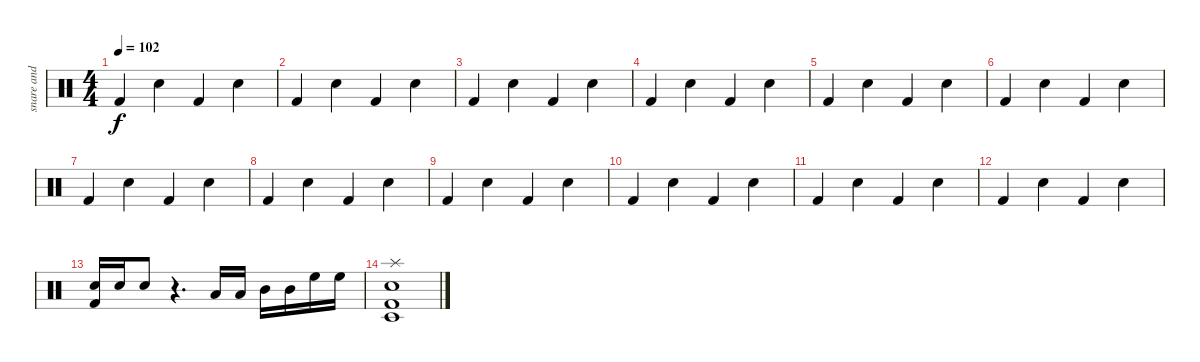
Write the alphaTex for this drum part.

\track ("snare and B.drum" "snare and ") {instrument percussion}
\staff {score}
\articulation defaults
\ts (4 4)
\tempo 102
\clef neutral
\ks c "Kick (hit) 2".4{dy f} "Electric Snare (hit)".4 "Kick (hit) 2".4 "Electric Snare (hit)".4
|
"Kick (hit) 2".4 "Electric Snare (hit)".4 "Kick (hit) 2".4 "Electric Snare (hit)".4 |
"Kick (hit) 2".4 "Electric Snare (hit)".4 "Kick (hit) 2".4 "Electric Snare (hit)".4 |
"Kick (hit) 2".4 "Electric Snare (hit)".4 "Kick (hit) 2".4 "Electric Snare (hit)".4 |
"Kick (hit) 2".4 "Electric Snare (hit)".4 "Kick (hit) 2".4 "Electric Snare (hit)".4 |
"Kick (hit) 2".4 "Electric Snare (hit)".4 "Kick (hit) 2".4 "Electric Snare (hit)".4 |
"Kick (hit) 2".4 "Electric Snare (hit)".4 "Kick (hit) 2".4 "Electric Snare (hit)".4 |
"Kick (hit) 2".4 "Electric Snare (hit)".4 "Kick (hit) 2".4 "Electric Snare (hit)".4 |
"Kick (hit) 2".4 "Electric Snare (hit)".4 "Kick (hit) 2".4 "Electric Snare (hit)".4 |
"Kick (hit) 2".4 "Electric Snare (hit)".4 "Kick (hit) 2".4 "Electric Snare (hit)".4 |
"Kick (hit) 2".4 "Electric Snare (hit)".4 "Kick (hit) 2".4 "Electric Snare (hit)".4 |
"Kick (hit) 2".4 "Electric Snare (hit)".4 "Kick (hit) 2".4 "Electric Snare (hit)".4 |
("Electric Snare (hit)" "Kick (hit) 2").16 "Electric Snare (hit)".16 "Electric Snare (hit)".8 r.4{d} "Low Tom (hit)".16 "Low Tom (hit)".16 "Mid Tom (hit)".16 "Mid Tom (hit)".16 "High Floor Tom (hit)".16 "High Floor Tom (hit)".16 |
("Splash (hit)" "Electric Snare (hit)" "Kick (hit) 2" "Timbale low (hit)").1
